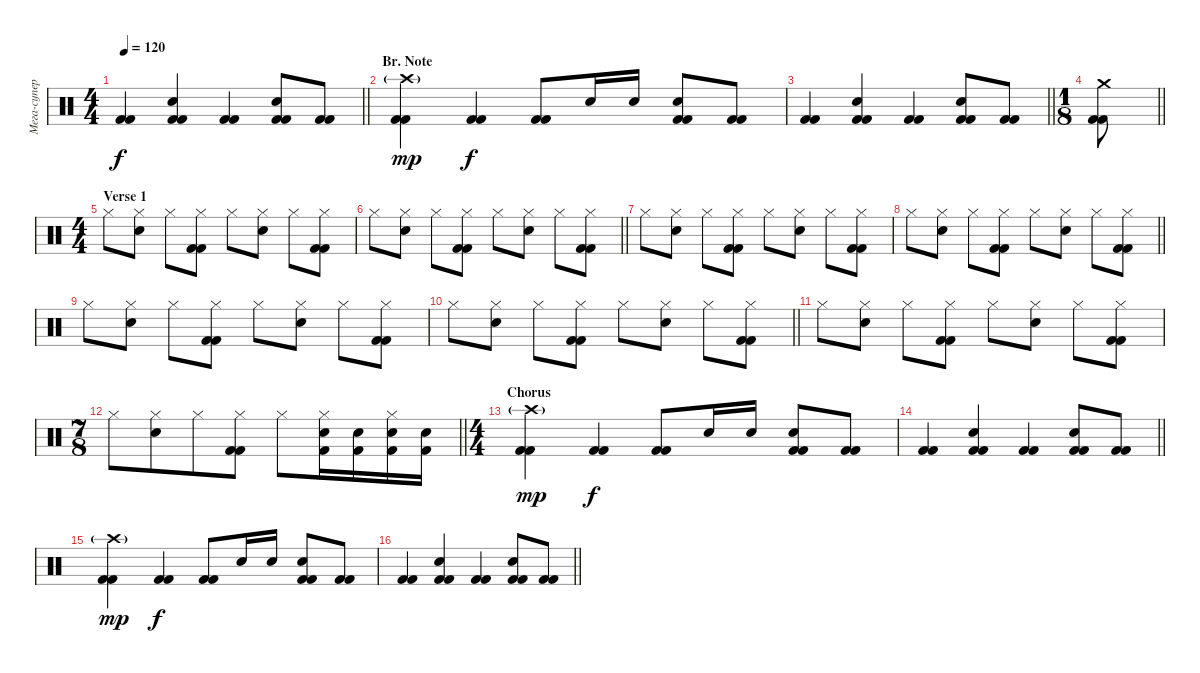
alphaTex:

\track ("Мега-супер-охеренный драммер" "Мега-супер") {instrument percussion}
\staff {score}
\articulation defaults
\ts (4 4)
\tempo 120
\clef neutral
\barLineRight lightlight
\ks c
("Kick (hit) 2" "Kick (hit) 2").4{dy f} ("Electric Snare (hit)" "Kick (hit) 2" "Kick (hit) 2").4 ("Kick (hit) 2" "Kick (hit) 2").4 ("Electric Snare (hit)" "Kick (hit) 2" "Kick (hit) 2").8 ("Kick (hit) 2" "Kick (hit) 2").8 |
\section ("" "Br. Note")
("Crash high (hit)"{g} "Kick (hit) 2" "Kick (hit) 2").4{dy mp} ("Kick (hit) 2" "Kick (hit) 2").4{dy f} ("Kick (hit) 2" "Kick (hit) 2").8 "Electric Snare (hit)".16 "Electric Snare (hit)".16 ("Electric Snare (hit)" "Kick (hit) 2" "Kick (hit) 2").8 ("Kick (hit) 2" "Kick (hit) 2").8 |
\barLineRight lightlight
("Kick (hit) 2" "Kick (hit) 2").4 ("Electric Snare (hit)" "Kick (hit) 2" "Kick (hit) 2").4 ("Kick (hit) 2" "Kick (hit) 2").4 ("Electric Snare (hit)" "Kick (hit) 2" "Kick (hit) 2").8 ("Kick (hit) 2" "Kick (hit) 2").8 |
\ts (1 8)
\barLineRight lightlight
("Crash medium (hit)" "Kick (hit) 2" "Kick (hit) 2").8 |
\ts (4 4)
\section ("" "Verse 1")
"Hi-Hat (closed)".8 ("Hi-Hat (closed)" "Electric Snare (hit)").8 "Hi-Hat (closed)".8 ("Hi-Hat (closed)" "Kick (hit) 2" "Kick (hit) 2").8 "Hi-Hat (closed)".8 ("Hi-Hat (closed)" "Electric Snare (hit)").8 "Hi-Hat (closed)".8 ("Hi-Hat (closed)" "Kick (hit) 2" "Kick (hit) 2").8 |
\barLineRight lightlight "Hi-Hat (closed)".8
("Hi-Hat (closed)" "Electric Snare (hit)").8 "Hi-Hat (closed)".8 ("Hi-Hat (closed)" "Kick (hit) 2" "Kick (hit) 2").8 "Hi-Hat (closed)".8 ("Hi-Hat (closed)" "Electric Snare (hit)").8 "Hi-Hat (closed)".8 ("Hi-Hat (closed)" "Kick (hit) 2" "Kick (hit) 2").8 |
"Hi-Hat (closed)".8 ("Hi-Hat (closed)" "Electric Snare (hit)").8 "Hi-Hat (closed)".8 ("Hi-Hat (closed)" "Kick (hit) 2" "Kick (hit) 2").8 "Hi-Hat (closed)".8 ("Hi-Hat (closed)" "Electric Snare (hit)").8 "Hi-Hat (closed)".8 ("Hi-Hat (closed)" "Kick (hit) 2" "Kick (hit) 2").8 |
\barLineRight lightlight "Hi-Hat (closed)".8
("Hi-Hat (closed)" "Electric Snare (hit)").8 "Hi-Hat (closed)".8 ("Hi-Hat (closed)" "Kick (hit) 2" "Kick (hit) 2").8 "Hi-Hat (closed)".8 ("Hi-Hat (closed)" "Electric Snare (hit)").8 "Hi-Hat (closed)".8 ("Hi-Hat (closed)" "Kick (hit) 2" "Kick (hit) 2").8 |
"Hi-Hat (closed)".8 ("Hi-Hat (closed)" "Electric Snare (hit)").8 "Hi-Hat (closed)".8 ("Hi-Hat (closed)" "Kick (hit) 2" "Kick (hit) 2").8 "Hi-Hat (closed)".8 ("Hi-Hat (closed)" "Electric Snare (hit)").8 "Hi-Hat (closed)".8 ("Hi-Hat (closed)" "Kick (hit) 2" "Kick (hit) 2").8 |
\barLineRight lightlight "Hi-Hat (closed)".8
("Hi-Hat (closed)" "Electric Snare (hit)").8 "Hi-Hat (closed)".8 ("Hi-Hat (closed)" "Kick (hit) 2" "Kick (hit) 2").8 "Hi-Hat (closed)".8 ("Hi-Hat (closed)" "Electric Snare (hit)").8 "Hi-Hat (closed)".8 ("Hi-Hat (closed)" "Kick (hit) 2" "Kick (hit) 2").8 |
"Hi-Hat (closed)".8 ("Hi-Hat (closed)" "Electric Snare (hit)").8 "Hi-Hat (closed)".8 ("Hi-Hat (closed)" "Kick (hit) 2" "Kick (hit) 2").8 "Hi-Hat (closed)".8 ("Hi-Hat (closed)" "Electric Snare (hit)").8 "Hi-Hat (closed)".8 ("Hi-Hat (closed)" "Kick (hit) 2" "Kick (hit) 2").8 |
\ts (7 8)
\barLineRight lightlight "Hi-Hat (closed)".8
("Hi-Hat (closed)" "Electric Snare (hit)").8 "Hi-Hat (closed)".8 ("Hi-Hat (closed)" "Kick (hit) 2" "Kick (hit) 2").8 "Hi-Hat (closed)".8 ("Hi-Hat (closed)" "Electric Snare (hit)" "Kick (hit) 2").16 ("Electric Snare (hit)" "Kick (hit) 2").16 ("Hi-Hat (closed)" "Electric Snare (hit)" "Kick (hit) 2").16 ("Electric Snare (hit)" "Kick (hit) 2").16 |
\ts (4 4)
\section ("" "Chorus")
("Crash high (hit)"{g} "Kick (hit) 2" "Kick (hit) 2").4{dy mp} ("Kick (hit) 2" "Kick (hit) 2").4{dy f} ("Kick (hit) 2" "Kick (hit) 2").8 "Electric Snare (hit)".16 "Electric Snare (hit)".16 ("Electric Snare (hit)" "Kick (hit) 2" "Kick (hit) 2").8 ("Kick (hit) 2" "Kick (hit) 2").8 |
\barLineRight lightlight
("Kick (hit) 2" "Kick (hit) 2").4 ("Electric Snare (hit)" "Kick (hit) 2" "Kick (hit) 2").4 ("Kick (hit) 2" "Kick (hit) 2").4 ("Electric Snare (hit)" "Kick (hit) 2" "Kick (hit) 2").8 ("Kick (hit) 2" "Kick (hit) 2").8 |
("Crash high (hit)"{g} "Kick (hit) 2" "Kick (hit) 2").4{dy mp} ("Kick (hit) 2" "Kick (hit) 2").4{dy f} ("Kick (hit) 2" "Kick (hit) 2").8 "Electric Snare (hit)".16 "Electric Snare (hit)".16 ("Electric Snare (hit)" "Kick (hit) 2" "Kick (hit) 2").8 ("Kick (hit) 2" "Kick (hit) 2").8 |
\barLineRight lightlight
("Kick (hit) 2" "Kick (hit) 2").4 ("Electric Snare (hit)" "Kick (hit) 2" "Kick (hit) 2").4 ("Kick (hit) 2" "Kick (hit) 2").4 ("Electric Snare (hit)" "Kick (hit) 2" "Kick (hit) 2").8 ("Kick (hit) 2" "Kick (hit) 2").8
